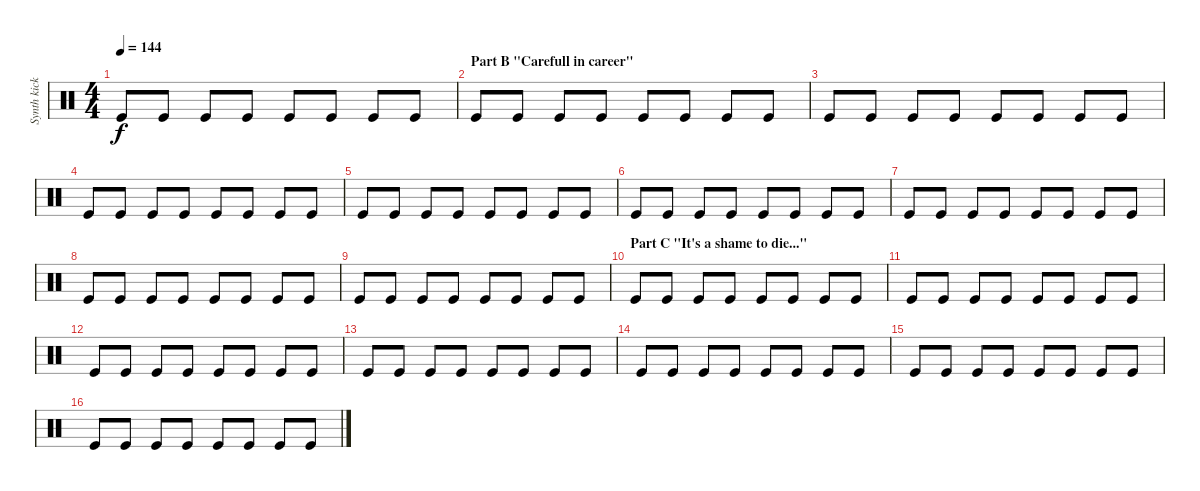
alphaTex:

\track ("Synth kick loop" "Synth kick") {instrument percussion}
\staff {score}
\articulation defaults
\ts (4 4)
\tempo 144
\clef neutral
\ks c "Kick (hit)".8{dy f} "Kick (hit)".8 "Kick (hit)".8 "Kick (hit)".8 "Kick (hit)".8 "Kick (hit)".8 "Kick (hit)".8 "Kick (hit)".8
|
\section ("" "Part B \"Carefull in career\"")
"Kick (hit)".8 "Kick (hit)".8 "Kick (hit)".8 "Kick (hit)".8 "Kick (hit)".8 "Kick (hit)".8 "Kick (hit)".8 "Kick (hit)".8 |
"Kick (hit)".8 "Kick (hit)".8 "Kick (hit)".8 "Kick (hit)".8 "Kick (hit)".8 "Kick (hit)".8 "Kick (hit)".8 "Kick (hit)".8 |
"Kick (hit)".8 "Kick (hit)".8 "Kick (hit)".8 "Kick (hit)".8 "Kick (hit)".8 "Kick (hit)".8 "Kick (hit)".8 "Kick (hit)".8 |
"Kick (hit)".8 "Kick (hit)".8 "Kick (hit)".8 "Kick (hit)".8 "Kick (hit)".8 "Kick (hit)".8 "Kick (hit)".8 "Kick (hit)".8 |
"Kick (hit)".8 "Kick (hit)".8 "Kick (hit)".8 "Kick (hit)".8 "Kick (hit)".8 "Kick (hit)".8 "Kick (hit)".8 "Kick (hit)".8 |
"Kick (hit)".8 "Kick (hit)".8 "Kick (hit)".8 "Kick (hit)".8 "Kick (hit)".8 "Kick (hit)".8 "Kick (hit)".8 "Kick (hit)".8 |
"Kick (hit)".8 "Kick (hit)".8 "Kick (hit)".8 "Kick (hit)".8 "Kick (hit)".8 "Kick (hit)".8 "Kick (hit)".8 "Kick (hit)".8 |
"Kick (hit)".8 "Kick (hit)".8 "Kick (hit)".8 "Kick (hit)".8 "Kick (hit)".8 "Kick (hit)".8 "Kick (hit)".8 "Kick (hit)".8 |
\section ("" "Part C \"It's a shame to die...\"")
"Kick (hit)".8 "Kick (hit)".8 "Kick (hit)".8 "Kick (hit)".8 "Kick (hit)".8 "Kick (hit)".8 "Kick (hit)".8 "Kick (hit)".8 |
"Kick (hit)".8 "Kick (hit)".8 "Kick (hit)".8 "Kick (hit)".8 "Kick (hit)".8 "Kick (hit)".8 "Kick (hit)".8 "Kick (hit)".8 |
"Kick (hit)".8 "Kick (hit)".8 "Kick (hit)".8 "Kick (hit)".8 "Kick (hit)".8 "Kick (hit)".8 "Kick (hit)".8 "Kick (hit)".8 |
"Kick (hit)".8 "Kick (hit)".8 "Kick (hit)".8 "Kick (hit)".8 "Kick (hit)".8 "Kick (hit)".8 "Kick (hit)".8 "Kick (hit)".8 |
"Kick (hit)".8 "Kick (hit)".8 "Kick (hit)".8 "Kick (hit)".8 "Kick (hit)".8 "Kick (hit)".8 "Kick (hit)".8 "Kick (hit)".8 |
"Kick (hit)".8 "Kick (hit)".8 "Kick (hit)".8 "Kick (hit)".8 "Kick (hit)".8 "Kick (hit)".8 "Kick (hit)".8 "Kick (hit)".8 |
"Kick (hit)".8 "Kick (hit)".8 "Kick (hit)".8 "Kick (hit)".8 "Kick (hit)".8 "Kick (hit)".8 "Kick (hit)".8 "Kick (hit)".8
